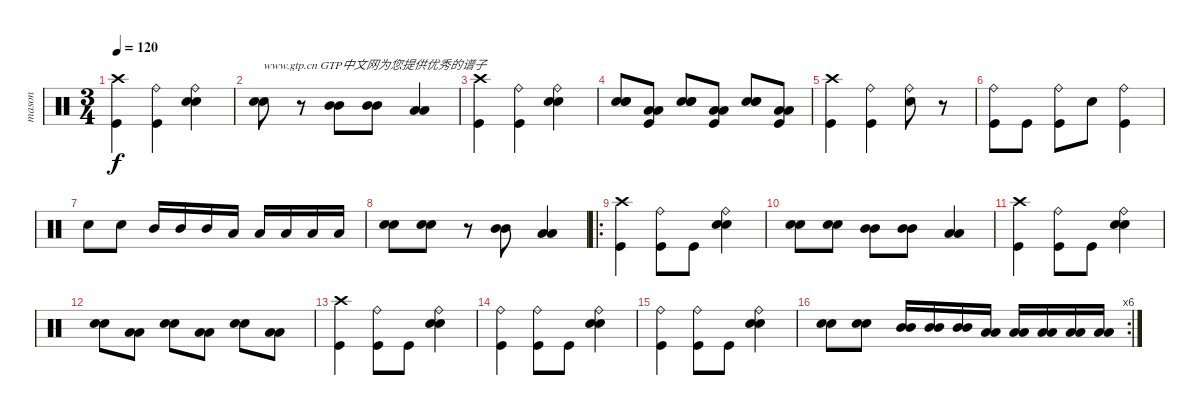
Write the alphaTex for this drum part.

\track ("mason" "mason") {instrument percussion}
\staff {score}
\articulation defaults
\ts (3 4)
\tempo 120
\clef neutral
\ks c
("Kick (hit)" "Crash high (hit)").4{dy f} ("Kick (hit)" "Ride (bell)").4 ("Electric Snare (hit)" "Electric Snare (hit)" "Ride (bell)").4 |
("Electric Snare (hit)" "Electric Snare (hit)").8{txt "www.gtp.cn GTP中文网为您提供优秀的谱子"} r.8 ("Mid Tom (hit)" "Mid Tom (hit)").8 ("Mid Tom (hit)" "Mid Tom (hit)").8 ("Low Tom (hit)" "Low Tom (hit)").4 |
("Kick (hit)" "Crash high (hit)").4 ("Kick (hit)" "Ride (bell)").4 ("Electric Snare (hit)" "Electric Snare (hit)" "Ride (bell)").4 |
("Electric Snare (hit)" "Electric Snare (hit)" "Electric Snare (hit)").8 ("Kick (hit)" "Low Floor Tom (hit)" "Low Floor Tom (hit)").8 ("Electric Snare (hit)" "Electric Snare (hit)" "Electric Snare (hit)").8 ("Kick (hit)" "Low Floor Tom (hit)" "Low Floor Tom (hit)").8 ("Electric Snare (hit)" "Electric Snare (hit)" "Electric Snare (hit)").8 ("Kick (hit)" "Low Floor Tom (hit)" "Low Floor Tom (hit)").8 |
("Kick (hit)" "Crash high (hit)").4 ("Kick (hit)" "Ride (bell)").4 ("Electric Snare (hit)" "Ride (bell)").8 r.8 |
("Kick (hit)" "Ride (bell)").8 "Kick (hit)".8 ("Kick (hit)" "Ride (bell)").8 "Electric Snare (hit)".8 ("Kick (hit)" "Ride (bell)").4 |
"Electric Snare (hit)".8 "Electric Snare (hit)".8 "Mid Tom (hit)".16 "Mid Tom (hit)".16 "Mid Tom (hit)".16 "Low Tom (hit)".16 "Low Tom (hit)".16 "Low Tom (hit)".16 "Low Floor Tom (hit)".16 "Low Floor Tom (hit)".16 |
("Electric Snare (hit)" "Electric Snare (hit)").8 ("Electric Snare (hit)" "Electric Snare (hit)").8 r.8 ("Mid Tom (hit)" "Mid Tom (hit)").8 ("Low Tom (hit)" "Low Tom (hit)").4 |
\ro
("Kick (hit)" "Crash high (hit)").4 ("Kick (hit)" "Ride (bell)").8 "Kick (hit)".8 ("Electric Snare (hit)" "Electric Snare (hit)" "Ride (bell)").4 |
("Electric Snare (hit)" "Electric Snare (hit)").8 ("Electric Snare (hit)" "Electric Snare (hit)").8 ("Mid Tom (hit)" "Mid Tom (hit)").8 ("Mid Tom (hit)" "Mid Tom (hit)").8 ("Low Tom (hit)" "Low Tom (hit)").4 |
("Kick (hit)" "Crash high (hit)").4 ("Kick (hit)" "Ride (bell)").8 "Kick (hit)".8 ("Electric Snare (hit)" "Electric Snare (hit)" "Ride (bell)").4 |
("Electric Snare (hit)" "Electric Snare (hit)").8 ("Low Tom (hit)" "Low Floor Tom (hit)").8 ("Electric Snare (hit)" "Electric Snare (hit)").8 ("Low Tom (hit)" "Low Floor Tom (hit)").8 ("Electric Snare (hit)" "Electric Snare (hit)").8 ("Low Tom (hit)" "Low Floor Tom (hit)").8 |
("Kick (hit)" "Crash high (hit)").4 ("Kick (hit)" "Ride (bell)").8 "Kick (hit)".8 ("Electric Snare (hit)" "Electric Snare (hit)" "Ride (bell)").4 |
("Kick (hit)" "Ride (bell)").4 ("Kick (hit)" "Ride (bell)").8 "Kick (hit)".8 ("Electric Snare (hit)" "Electric Snare (hit)" "Ride (bell)").4 |
("Kick (hit)" "Ride (bell)").4 ("Kick (hit)" "Ride (bell)").8 "Kick (hit)".8 ("Electric Snare (hit)" "Electric Snare (hit)" "Ride (bell)").4 |
\rc 6
("Electric Snare (hit)" "Electric Snare (hit)").8 ("Electric Snare (hit)" "Electric Snare (hit)").8 ("Mid Tom (hit)" "Mid Tom (hit)").16 ("Mid Tom (hit)" "Mid Tom (hit)").16 ("Mid Tom (hit)" "Mid Tom (hit)").16 ("Low Tom (hit)" "Low Tom (hit)").16 ("Low Tom (hit)" "Low Tom (hit)").16 ("Low Floor Tom (hit)" "Low Floor Tom (hit)").16 ("Low Floor Tom (hit)" "Low Floor Tom (hit)").16 ("Low Floor Tom (hit)" "Low Floor Tom (hit)").16
